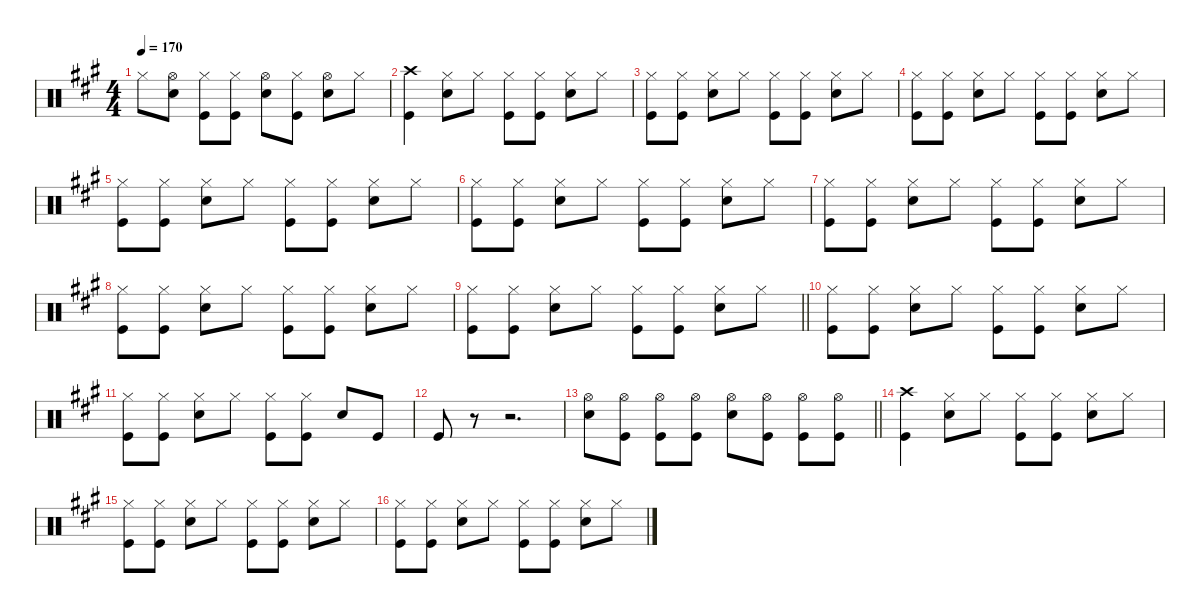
\defaultSystemsLayout 4
\hideDynamics
\bracketExtendMode nobrackets
\singleTrackTrackNamePolicy hidden
\multiTrackTrackNamePolicy hidden
\firstSystemTrackNameMode fullname
\firstSystemTrackNameOrientation horizontal
\otherSystemsTrackNameOrientation horizontal
\track ("Percussion" "drm.") {defaultSystemsLayout 4 instrument percussion}
\staff {score}
\articulation defaults
\ts (4 4)
\tempo 170
\clef neutral
\ks a "Hi-Hat (closed)"{acc forcenatural}.8{dy f beam Down}
("Hi-Hat (open)"{acc forcenatural} "Snare (hit) 2"{acc forcenatural}).8{beam Down} ("Hi-Hat (closed)"{acc forcenatural} "Kick (hit)"{acc forcenatural}).8{beam Down} ("Hi-Hat (closed)"{acc forcenatural} "Kick (hit)"{acc forcenatural}).8{beam Down} ("Hi-Hat (open)"{acc forcenatural} "Snare (hit) 2"{acc forcenatural}).8{beam Down} ("Hi-Hat (closed)"{acc forcenatural} "Kick (hit)"{acc forcenatural}).8{beam Down} ("Hi-Hat (open)"{acc forcenatural} "Snare (hit) 2"{acc forcenatural}).8{beam Down} "Hi-Hat (closed)"{acc forcenatural}.8{beam Down} |
("Crash high (hit)"{acc forcenatural} "Kick (hit)"{acc forcenatural}).4{beam Down} ("Hi-Hat (closed)"{acc forcenatural} "Snare (hit) 2"{acc forcenatural}).8{beam Down} "Hi-Hat (closed)"{acc forcenatural}.8{beam Down} ("Hi-Hat (closed)"{acc forcenatural} "Kick (hit)"{acc forcenatural}).8{beam Down} ("Hi-Hat (closed)"{acc forcenatural} "Kick (hit)"{acc forcenatural}).8{beam Down} ("Hi-Hat (closed)"{acc forcenatural} "Snare (hit) 2"{acc forcenatural}).8{beam Down} "Hi-Hat (closed)"{acc forcenatural}.8{beam Down} |
("Hi-Hat (closed)"{acc forcenatural} "Kick (hit)"{acc forcenatural}).8{beam Down} ("Hi-Hat (closed)"{acc forcenatural} "Kick (hit)"{acc forcenatural}).8{beam Down} ("Hi-Hat (closed)"{acc forcenatural} "Snare (hit) 2"{acc forcenatural}).8{beam Down} "Hi-Hat (closed)"{acc forcenatural}.8{beam Down} ("Hi-Hat (closed)"{acc forcenatural} "Kick (hit)"{acc forcenatural}).8{beam Down} ("Hi-Hat (closed)"{acc forcenatural} "Kick (hit)"{acc forcenatural}).8{beam Down} ("Hi-Hat (closed)"{acc forcenatural} "Snare (hit) 2"{acc forcenatural}).8{beam Down} "Hi-Hat (closed)"{acc forcenatural}.8{beam Down} |
("Hi-Hat (closed)"{acc forcenatural} "Kick (hit)"{acc forcenatural}).8{beam Down} ("Hi-Hat (closed)"{acc forcenatural} "Kick (hit)"{acc forcenatural}).8{beam Down} ("Hi-Hat (closed)"{acc forcenatural} "Snare (hit) 2"{acc forcenatural}).8{beam Down} "Hi-Hat (closed)"{acc forcenatural}.8{beam Down} ("Hi-Hat (closed)"{acc forcenatural} "Kick (hit)"{acc forcenatural}).8{beam Down} ("Hi-Hat (closed)"{acc forcenatural} "Kick (hit)"{acc forcenatural}).8{beam Down} ("Hi-Hat (closed)"{acc forcenatural} "Snare (hit) 2"{acc forcenatural}).8{beam Down} "Hi-Hat (closed)"{acc forcenatural}.8{beam Down} |
("Hi-Hat (closed)"{acc forcenatural} "Kick (hit)"{acc forcenatural}).8{beam Down} ("Hi-Hat (closed)"{acc forcenatural} "Kick (hit)"{acc forcenatural}).8{beam Down} ("Hi-Hat (closed)"{acc forcenatural} "Snare (hit) 2"{acc forcenatural}).8{beam Down} "Hi-Hat (closed)"{acc forcenatural}.8{beam Down} ("Hi-Hat (closed)"{acc forcenatural} "Kick (hit)"{acc forcenatural}).8{beam Down} ("Hi-Hat (closed)"{acc forcenatural} "Kick (hit)"{acc forcenatural}).8{beam Down} ("Hi-Hat (closed)"{acc forcenatural} "Snare (hit) 2"{acc forcenatural}).8{beam Down} "Hi-Hat (closed)"{acc forcenatural}.8{beam Down} |
("Hi-Hat (closed)"{acc forcenatural} "Kick (hit)"{acc forcenatural}).8{beam Down} ("Hi-Hat (closed)"{acc forcenatural} "Kick (hit)"{acc forcenatural}).8{beam Down} ("Hi-Hat (closed)"{acc forcenatural} "Snare (hit) 2"{acc forcenatural}).8{beam Down} "Hi-Hat (closed)"{acc forcenatural}.8{beam Down} ("Hi-Hat (closed)"{acc forcenatural} "Kick (hit)"{acc forcenatural}).8{beam Down} ("Hi-Hat (closed)"{acc forcenatural} "Kick (hit)"{acc forcenatural}).8{beam Down} ("Hi-Hat (closed)"{acc forcenatural} "Snare (hit) 2"{acc forcenatural}).8{beam Down} "Hi-Hat (closed)"{acc forcenatural}.8{beam Down} |
("Hi-Hat (closed)"{acc forcenatural} "Kick (hit)"{acc forcenatural}).8{beam Down} ("Hi-Hat (closed)"{acc forcenatural} "Kick (hit)"{acc forcenatural}).8{beam Down} ("Hi-Hat (closed)"{acc forcenatural} "Snare (hit) 2"{acc forcenatural}).8{beam Down} "Hi-Hat (closed)"{acc forcenatural}.8{beam Down} ("Hi-Hat (closed)"{acc forcenatural} "Kick (hit)"{acc forcenatural}).8{beam Down} ("Hi-Hat (closed)"{acc forcenatural} "Kick (hit)"{acc forcenatural}).8{beam Down} ("Hi-Hat (closed)"{acc forcenatural} "Snare (hit) 2"{acc forcenatural}).8{beam Down} "Hi-Hat (closed)"{acc forcenatural}.8{beam Down} |
("Hi-Hat (closed)"{acc forcenatural} "Kick (hit)"{acc forcenatural}).8{beam Down} ("Hi-Hat (closed)"{acc forcenatural} "Kick (hit)"{acc forcenatural}).8{beam Down} ("Hi-Hat (closed)"{acc forcenatural} "Snare (hit) 2"{acc forcenatural}).8{beam Down} "Hi-Hat (closed)"{acc forcenatural}.8{beam Down} ("Hi-Hat (closed)"{acc forcenatural} "Kick (hit)"{acc forcenatural}).8{beam Down} ("Hi-Hat (closed)"{acc forcenatural} "Kick (hit)"{acc forcenatural}).8{beam Down} ("Hi-Hat (closed)"{acc forcenatural} "Snare (hit) 2"{acc forcenatural}).8{beam Down} "Hi-Hat (closed)"{acc forcenatural}.8{beam Down} |
\barLineRight lightlight
("Hi-Hat (closed)"{acc forcenatural} "Kick (hit)"{acc forcenatural}).8{beam Down} ("Hi-Hat (closed)"{acc forcenatural} "Kick (hit)"{acc forcenatural}).8{beam Down} ("Hi-Hat (closed)"{acc forcenatural} "Snare (hit) 2"{acc forcenatural}).8{beam Down} "Hi-Hat (closed)"{acc forcenatural}.8{beam Down} ("Hi-Hat (closed)"{acc forcenatural} "Kick (hit)"{acc forcenatural}).8{beam Down} ("Hi-Hat (closed)"{acc forcenatural} "Kick (hit)"{acc forcenatural}).8{beam Down} ("Hi-Hat (closed)"{acc forcenatural} "Snare (hit) 2"{acc forcenatural}).8{beam Down} "Hi-Hat (closed)"{acc forcenatural}.8{beam Down} |
("Hi-Hat (closed)"{acc forcenatural} "Kick (hit)"{acc forcenatural}).8{beam Down} ("Hi-Hat (closed)"{acc forcenatural} "Kick (hit)"{acc forcenatural}).8{beam Down} ("Hi-Hat (closed)"{acc forcenatural} "Snare (hit) 2"{acc forcenatural}).8{beam Down} "Hi-Hat (closed)"{acc forcenatural}.8{beam Down} ("Hi-Hat (closed)"{acc forcenatural} "Kick (hit)"{acc forcenatural}).8{beam Down} ("Hi-Hat (closed)"{acc forcenatural} "Kick (hit)"{acc forcenatural}).8{beam Down} ("Hi-Hat (closed)"{acc forcenatural} "Snare (hit) 2"{acc forcenatural}).8{beam Down} "Hi-Hat (closed)"{acc forcenatural}.8{beam Down} |
("Hi-Hat (closed)"{acc forcenatural} "Kick (hit)"{acc forcenatural}).8{beam Down} ("Hi-Hat (closed)"{acc forcenatural} "Kick (hit)"{acc forcenatural}).8{beam Down} ("Hi-Hat (closed)"{acc forcenatural} "Snare (hit) 2"{acc forcenatural}).8{beam Down} "Hi-Hat (closed)"{acc forcenatural}.8{beam Down} ("Hi-Hat (closed)"{acc forcenatural} "Kick (hit)"{acc forcenatural}).8{beam Down} ("Hi-Hat (closed)"{acc forcenatural} "Kick (hit)"{acc forcenatural}).8{beam Down} "Snare (hit) 2"{acc forcenatural}.8{beam Up} "Kick (hit)"{acc forcenatural}.8{beam Up} |
"Kick (hit)"{acc forcenatural}.8{beam Up} r.8{beam Up} r.2{d beam Up} |
\barLineRight lightlight
("Hi-Hat (open)"{acc forcenatural} "Snare (hit) 2"{acc forcenatural}).8{beam Down} ("Hi-Hat (open)"{acc forcenatural} "Kick (hit)"{acc forcenatural}).8{beam Down} ("Hi-Hat (open)"{acc forcenatural} "Kick (hit)"{acc forcenatural}).8{beam Down} ("Hi-Hat (open)"{acc forcenatural} "Kick (hit)"{acc forcenatural}).8{beam Down} ("Hi-Hat (open)"{acc forcenatural} "Snare (hit) 2"{acc forcenatural}).8{beam Down} ("Hi-Hat (open)"{acc forcenatural} "Kick (hit)"{acc forcenatural}).8{beam Down} ("Hi-Hat (open)"{acc forcenatural} "Kick (hit)"{acc forcenatural}).8{beam Down} ("Hi-Hat (open)"{acc forcenatural} "Kick (hit)"{acc forcenatural}).8{beam Down} |
("Crash high (hit)"{acc forcenatural} "Kick (hit)"{acc forcenatural}).4{beam Down} ("Hi-Hat (closed)"{acc forcenatural} "Snare (hit) 2"{acc forcenatural}).8{beam Down} "Hi-Hat (closed)"{acc forcenatural}.8{beam Down} ("Hi-Hat (closed)"{acc forcenatural} "Kick (hit)"{acc forcenatural}).8{beam Down} ("Hi-Hat (closed)"{acc forcenatural} "Kick (hit)"{acc forcenatural}).8{beam Down} ("Hi-Hat (closed)"{acc forcenatural} "Snare (hit) 2"{acc forcenatural}).8{beam Down} "Hi-Hat (closed)"{acc forcenatural}.8{beam Down} |
("Hi-Hat (closed)"{acc forcenatural} "Kick (hit)"{acc forcenatural}).8{beam Down} ("Hi-Hat (closed)"{acc forcenatural} "Kick (hit)"{acc forcenatural}).8{beam Down} ("Hi-Hat (closed)"{acc forcenatural} "Snare (hit) 2"{acc forcenatural}).8{beam Down} "Hi-Hat (closed)"{acc forcenatural}.8{beam Down} ("Hi-Hat (closed)"{acc forcenatural} "Kick (hit)"{acc forcenatural}).8{beam Down} ("Hi-Hat (closed)"{acc forcenatural} "Kick (hit)"{acc forcenatural}).8{beam Down} ("Hi-Hat (closed)"{acc forcenatural} "Snare (hit) 2"{acc forcenatural}).8{beam Down} "Hi-Hat (closed)"{acc forcenatural}.8{beam Down} |
("Hi-Hat (closed)"{acc forcenatural} "Kick (hit)"{acc forcenatural}).8{beam Down} ("Hi-Hat (closed)"{acc forcenatural} "Kick (hit)"{acc forcenatural}).8{beam Down} ("Hi-Hat (closed)"{acc forcenatural} "Snare (hit) 2"{acc forcenatural}).8{beam Down} "Hi-Hat (closed)"{acc forcenatural}.8{beam Down} ("Hi-Hat (closed)"{acc forcenatural} "Kick (hit)"{acc forcenatural}).8{beam Down} ("Hi-Hat (closed)"{acc forcenatural} "Kick (hit)"{acc forcenatural}).8{beam Down} ("Hi-Hat (closed)"{acc forcenatural} "Snare (hit) 2"{acc forcenatural}).8{beam Down} "Hi-Hat (closed)"{acc forcenatural}.8{beam Down}
